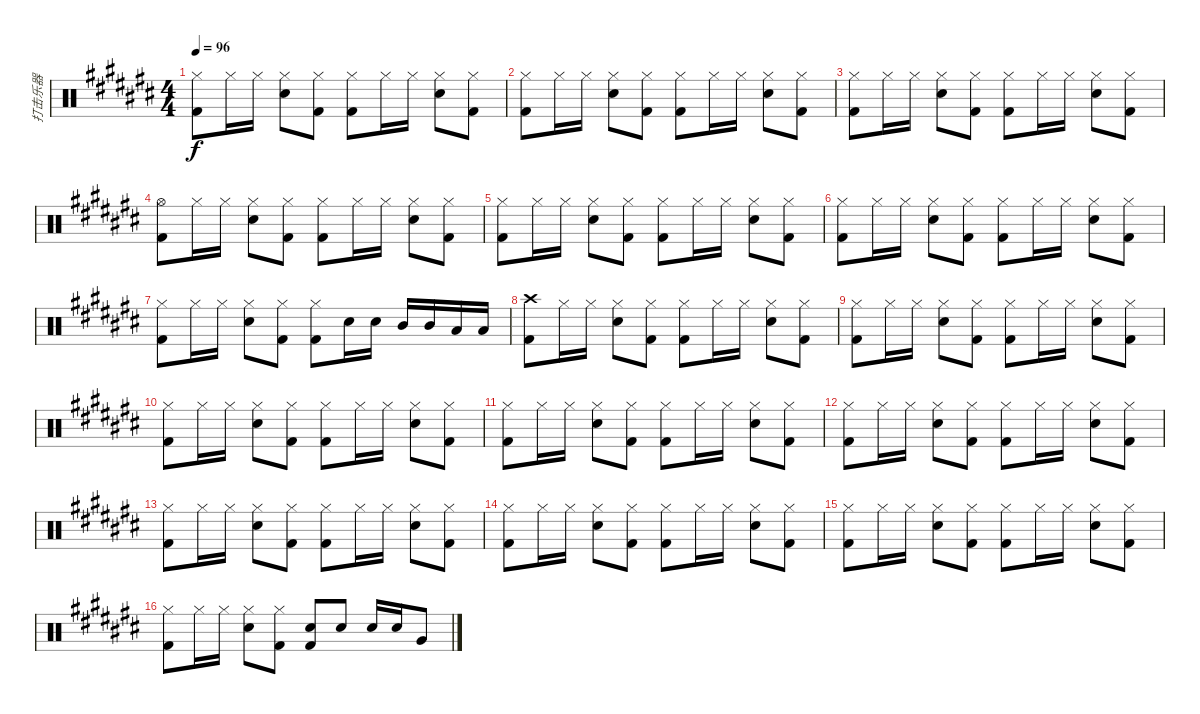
\track ("打击乐器" "打击乐器") {instrument percussion}
\staff {score}
\articulation defaults
\ts (4 4)
\tempo 96
\clef neutral
\ks c#
("Hi-Hat (closed)" "Kick (hit) 2").8{dy f} "Hi-Hat (closed)".16 "Hi-Hat (closed)".16 ("Hi-Hat (closed)" "Snare (hit) 2").8 ("Hi-Hat (closed)" "Kick (hit) 2").8 ("Hi-Hat (closed)" "Kick (hit) 2").8 "Hi-Hat (closed)".16 "Hi-Hat (closed)".16 ("Hi-Hat (closed)" "Snare (hit) 2").8 ("Hi-Hat (closed)" "Kick (hit) 2").8 |
("Hi-Hat (closed)" "Kick (hit) 2").8 "Hi-Hat (closed)".16 "Hi-Hat (closed)".16 ("Hi-Hat (closed)" "Snare (hit) 2").8 ("Hi-Hat (closed)" "Kick (hit) 2").8 ("Hi-Hat (closed)" "Kick (hit) 2").8 "Hi-Hat (closed)".16 "Hi-Hat (closed)".16 ("Hi-Hat (closed)" "Snare (hit) 2").8 ("Hi-Hat (closed)" "Kick (hit) 2").8 |
("Hi-Hat (closed)" "Kick (hit) 2").8 "Hi-Hat (closed)".16 "Hi-Hat (closed)".16 ("Hi-Hat (closed)" "Snare (hit) 2").8 ("Hi-Hat (closed)" "Kick (hit) 2").8 ("Hi-Hat (closed)" "Kick (hit) 2").8 "Hi-Hat (closed)".16 "Hi-Hat (closed)".16 ("Hi-Hat (closed)" "Snare (hit) 2").8 ("Hi-Hat (closed)" "Kick (hit) 2").8 |
("Hi-Hat (open)" "Kick (hit) 2").8 "Hi-Hat (closed)".16 "Hi-Hat (closed)".16 ("Hi-Hat (closed)" "Snare (hit) 2").8 ("Hi-Hat (closed)" "Kick (hit) 2").8 ("Hi-Hat (closed)" "Kick (hit) 2").8 "Hi-Hat (closed)".16 "Hi-Hat (closed)".16 ("Hi-Hat (closed)" "Snare (hit) 2").8 ("Hi-Hat (closed)" "Kick (hit) 2").8 |
("Hi-Hat (closed)" "Kick (hit) 2").8 "Hi-Hat (closed)".16 "Hi-Hat (closed)".16 ("Hi-Hat (closed)" "Snare (hit) 2").8 ("Hi-Hat (closed)" "Kick (hit) 2").8 ("Hi-Hat (closed)" "Kick (hit) 2").8 "Hi-Hat (closed)".16 "Hi-Hat (closed)".16 ("Hi-Hat (closed)" "Snare (hit) 2").8 ("Hi-Hat (closed)" "Kick (hit) 2").8 |
("Hi-Hat (closed)" "Kick (hit) 2").8 "Hi-Hat (closed)".16 "Hi-Hat (closed)".16 ("Hi-Hat (closed)" "Snare (hit) 2").8 ("Hi-Hat (closed)" "Kick (hit) 2").8 ("Hi-Hat (closed)" "Kick (hit) 2").8 "Hi-Hat (closed)".16 "Hi-Hat (closed)".16 ("Hi-Hat (closed)" "Snare (hit) 2").8 ("Hi-Hat (closed)" "Kick (hit) 2").8 |
("Hi-Hat (closed)" "Kick (hit) 2").8 "Hi-Hat (closed)".16 "Hi-Hat (closed)".16 ("Hi-Hat (closed)" "Snare (hit) 2").8 ("Hi-Hat (closed)" "Kick (hit) 2").8 ("Hi-Hat (closed)" "Kick (hit) 2").8 "Snare (hit) 2".16 "Snare (hit) 2".16 "Mid Tom (hit)".16 "Mid Tom (hit)".16 "Low Tom (hit)".16 "Low Floor Tom (hit)".16 |
("Crash high (hit)" "Kick (hit) 2").8 "Hi-Hat (closed)".16 "Hi-Hat (closed)".16 ("Hi-Hat (closed)" "Snare (hit) 2").8 ("Hi-Hat (closed)" "Kick (hit) 2").8 ("Hi-Hat (closed)" "Kick (hit) 2").8 "Hi-Hat (closed)".16 "Hi-Hat (closed)".16 ("Hi-Hat (closed)" "Snare (hit) 2").8 ("Hi-Hat (closed)" "Kick (hit) 2").8 |
("Hi-Hat (closed)" "Kick (hit) 2").8 "Hi-Hat (closed)".16 "Hi-Hat (closed)".16 ("Hi-Hat (closed)" "Snare (hit) 2").8 ("Hi-Hat (closed)" "Kick (hit) 2").8 ("Hi-Hat (closed)" "Kick (hit) 2").8 "Hi-Hat (closed)".16 "Hi-Hat (closed)".16 ("Hi-Hat (closed)" "Snare (hit) 2").8 ("Hi-Hat (closed)" "Kick (hit) 2").8 |
("Hi-Hat (closed)" "Kick (hit) 2").8 "Hi-Hat (closed)".16 "Hi-Hat (closed)".16 ("Hi-Hat (closed)" "Snare (hit) 2").8 ("Hi-Hat (closed)" "Kick (hit) 2").8 ("Hi-Hat (closed)" "Kick (hit) 2").8 "Hi-Hat (closed)".16 "Hi-Hat (closed)".16 ("Hi-Hat (closed)" "Snare (hit) 2").8 ("Hi-Hat (closed)" "Kick (hit) 2").8 |
("Hi-Hat (closed)" "Kick (hit) 2").8 "Hi-Hat (closed)".16 "Hi-Hat (closed)".16 ("Hi-Hat (closed)" "Snare (hit) 2").8 ("Hi-Hat (closed)" "Kick (hit) 2").8 ("Hi-Hat (closed)" "Kick (hit) 2").8 "Hi-Hat (closed)".16 "Hi-Hat (closed)".16 ("Hi-Hat (closed)" "Snare (hit) 2").8 ("Hi-Hat (closed)" "Kick (hit) 2").8 |
("Hi-Hat (closed)" "Kick (hit) 2").8 "Hi-Hat (closed)".16 "Hi-Hat (closed)".16 ("Hi-Hat (closed)" "Snare (hit) 2").8 ("Hi-Hat (closed)" "Kick (hit) 2").8 ("Hi-Hat (closed)" "Kick (hit) 2").8 "Hi-Hat (closed)".16 "Hi-Hat (closed)".16 ("Hi-Hat (closed)" "Snare (hit) 2").8 ("Hi-Hat (closed)" "Kick (hit) 2").8 |
("Hi-Hat (closed)" "Kick (hit) 2").8 "Hi-Hat (closed)".16 "Hi-Hat (closed)".16 ("Hi-Hat (closed)" "Snare (hit) 2").8 ("Hi-Hat (closed)" "Kick (hit) 2").8 ("Hi-Hat (closed)" "Kick (hit) 2").8 "Hi-Hat (closed)".16 "Hi-Hat (closed)".16 ("Hi-Hat (closed)" "Snare (hit) 2").8 ("Hi-Hat (closed)" "Kick (hit) 2").8 |
("Hi-Hat (closed)" "Kick (hit) 2").8 "Hi-Hat (closed)".16 "Hi-Hat (closed)".16 ("Hi-Hat (closed)" "Snare (hit) 2").8 ("Hi-Hat (closed)" "Kick (hit) 2").8 ("Hi-Hat (closed)" "Kick (hit) 2").8 "Hi-Hat (closed)".16 "Hi-Hat (closed)".16 ("Hi-Hat (closed)" "Snare (hit) 2").8 ("Hi-Hat (closed)" "Kick (hit) 2").8 |
("Hi-Hat (closed)" "Kick (hit) 2").8 "Hi-Hat (closed)".16 "Hi-Hat (closed)".16 ("Hi-Hat (closed)" "Snare (hit) 2").8 ("Hi-Hat (closed)" "Kick (hit) 2").8 ("Hi-Hat (closed)" "Kick (hit) 2").8 "Hi-Hat (closed)".16 "Hi-Hat (closed)".16 ("Hi-Hat (closed)" "Snare (hit) 2").8 ("Hi-Hat (closed)" "Kick (hit) 2").8 |
("Hi-Hat (closed)" "Kick (hit) 2").8 "Hi-Hat (closed)".16 "Hi-Hat (closed)".16 ("Hi-Hat (closed)" "Snare (hit) 2").8 ("Hi-Hat (closed)" "Kick (hit) 2").8 ("Snare (hit) 2" "Kick (hit) 2").8 "Snare (hit) 2".8 "Snare (hit) 2".16 "Snare (hit) 2".16 "Very Low Tom (hit)".8
